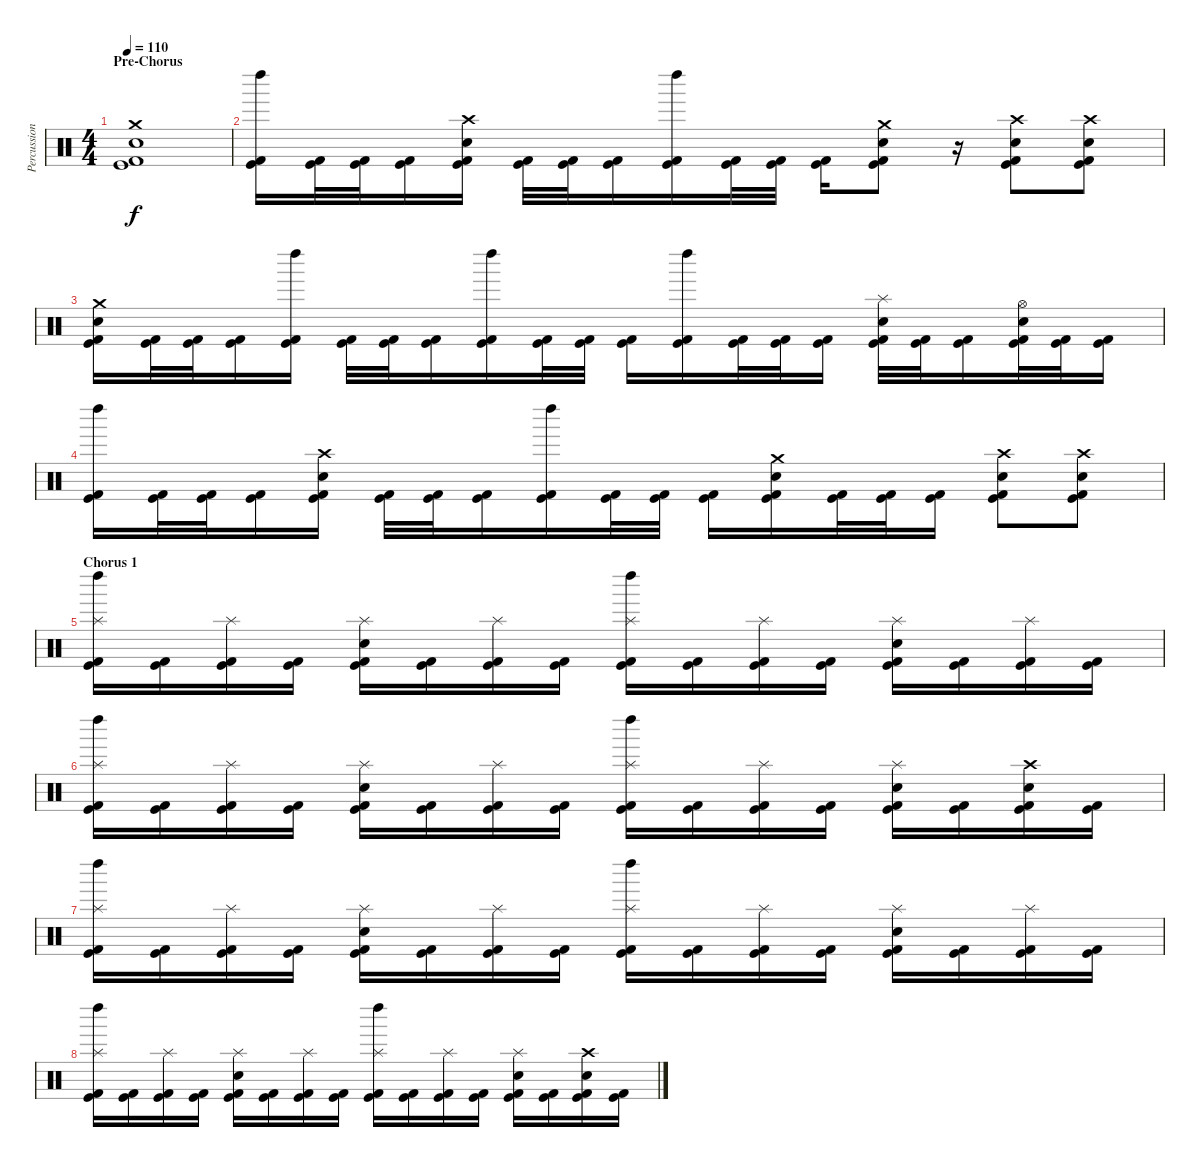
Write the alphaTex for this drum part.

\track ("Percussions" "Percussion") {instrument percussion}
\staff {score}
\articulation defaults
\ts (4 4)
\section ("" "Pre-Chorus")
\tempo 110
\clef neutral
\ks c
("Kick (hit)" "Kick (hit) 2" "Electric Snare (hit)" "Crash medium (hit)").1{dy f} |
("Kick (hit)" "Kick (hit) 2" "Left Maraca (hit)").16 ("Kick (hit)" "Kick (hit) 2").32 ("Kick (hit)" "Kick (hit) 2").32 ("Kick (hit)" "Kick (hit) 2").16 ("Kick (hit)" "Kick (hit) 2" "Electric Snare (hit)" "Crash high (hit)").16 ("Kick (hit)" "Kick (hit) 2").32 ("Kick (hit)" "Kick (hit) 2").32 ("Kick (hit)" "Kick (hit) 2").16 ("Kick (hit)" "Kick (hit) 2" "Left Maraca (hit)").16 ("Kick (hit)" "Kick (hit) 2").32 ("Kick (hit)" "Kick (hit) 2").32 ("Kick (hit)" "Kick (hit) 2").16 ("Kick (hit)" "Kick (hit) 2" "Electric Snare (hit)" "Crash medium (hit)").8 r.16 ("Kick (hit)" "Kick (hit) 2" "Electric Snare (hit)" "Crash high (hit)").8 ("Kick (hit)" "Kick (hit) 2" "Electric Snare (hit)" "Crash high (hit)").8 |
("Kick (hit)" "Kick (hit) 2" "Electric Snare (hit)" "Crash medium (hit)").16 ("Kick (hit)" "Kick (hit) 2").32 ("Kick (hit)" "Kick (hit) 2").32 ("Kick (hit)" "Kick (hit) 2").16 ("Kick (hit)" "Kick (hit) 2" "Left Maraca (hit)").16 ("Kick (hit)" "Kick (hit) 2").32 ("Kick (hit)" "Kick (hit) 2").32 ("Kick (hit)" "Kick (hit) 2").16 ("Kick (hit)" "Kick (hit) 2" "Left Maraca (hit)").16 ("Kick (hit)" "Kick (hit) 2").32 ("Kick (hit)" "Kick (hit) 2").32 ("Kick (hit)" "Kick (hit) 2").16 ("Kick (hit)" "Kick (hit) 2" "Left Maraca (hit)").16 ("Kick (hit)" "Kick (hit) 2").32 ("Kick (hit)" "Kick (hit) 2").32 ("Kick (hit)" "Kick (hit) 2").16 ("Kick (hit)" "Kick (hit) 2" "Electric Snare (hit)" "Splash (hit)").32 ("Kick (hit)" "Kick (hit) 2").32 ("Kick (hit)" "Kick (hit) 2").16 ("Kick (hit)" "Kick (hit) 2" "Electric Snare (hit)" "Hi-Hat (open)").32 ("Kick (hit)" "Kick (hit) 2").32 ("Kick (hit)" "Kick (hit) 2").16 |
("Kick (hit)" "Kick (hit) 2" "Left Maraca (hit)").16 ("Kick (hit)" "Kick (hit) 2").32 ("Kick (hit)" "Kick (hit) 2").32 ("Kick (hit)" "Kick (hit) 2").16 ("Kick (hit)" "Kick (hit) 2" "Electric Snare (hit)" "Crash high (hit)").16 ("Kick (hit)" "Kick (hit) 2").32 ("Kick (hit)" "Kick (hit) 2").32 ("Kick (hit)" "Kick (hit) 2").16 ("Kick (hit)" "Kick (hit) 2" "Left Maraca (hit)").16 ("Kick (hit)" "Kick (hit) 2").32 ("Kick (hit)" "Kick (hit) 2").32 ("Kick (hit)" "Kick (hit) 2").16 ("Kick (hit)" "Kick (hit) 2" "Electric Snare (hit)" "Crash medium (hit)").16 ("Kick (hit)" "Kick (hit) 2").32 ("Kick (hit)" "Kick (hit) 2").32 ("Kick (hit)" "Kick (hit) 2").16 ("Kick (hit)" "Kick (hit) 2" "Electric Snare (hit)" "Crash high (hit)").8 ("Kick (hit)" "Kick (hit) 2" "Electric Snare (hit)" "Crash high (hit)").8 |
\section ("" "Chorus 1")
("Kick (hit)" "Kick (hit) 2" "Splash (hit)" "Left Maraca (hit)").16 ("Kick (hit)" "Kick (hit) 2").16 ("Kick (hit)" "Kick (hit) 2" "Splash (hit)").16 ("Kick (hit)" "Kick (hit) 2").16 ("Kick (hit)" "Kick (hit) 2" "Splash (hit)" "Electric Snare (hit)").16 ("Kick (hit)" "Kick (hit) 2").16 ("Kick (hit)" "Kick (hit) 2" "Splash (hit)").16 ("Kick (hit)" "Kick (hit) 2").16 ("Kick (hit)" "Kick (hit) 2" "Splash (hit)" "Left Maraca (hit)").16 ("Kick (hit)" "Kick (hit) 2").16 ("Kick (hit)" "Kick (hit) 2" "Splash (hit)").16 ("Kick (hit)" "Kick (hit) 2").16 ("Kick (hit)" "Kick (hit) 2" "Splash (hit)" "Electric Snare (hit)").16 ("Kick (hit)" "Kick (hit) 2").16 ("Kick (hit)" "Kick (hit) 2" "Splash (hit)").16 ("Kick (hit)" "Kick (hit) 2").16 |
("Kick (hit)" "Kick (hit) 2" "Splash (hit)" "Left Maraca (hit)").16 ("Kick (hit)" "Kick (hit) 2").16 ("Kick (hit)" "Kick (hit) 2" "Splash (hit)").16 ("Kick (hit)" "Kick (hit) 2").16 ("Kick (hit)" "Kick (hit) 2" "Splash (hit)" "Electric Snare (hit)").16 ("Kick (hit)" "Kick (hit) 2").16 ("Kick (hit)" "Kick (hit) 2" "Splash (hit)").16 ("Kick (hit)" "Kick (hit) 2").16 ("Kick (hit)" "Kick (hit) 2" "Splash (hit)" "Left Maraca (hit)").16 ("Kick (hit)" "Kick (hit) 2").16 ("Kick (hit)" "Kick (hit) 2" "Splash (hit)").16 ("Kick (hit)" "Kick (hit) 2").16 ("Kick (hit)" "Kick (hit) 2" "Splash (hit)" "Electric Snare (hit)").16 ("Kick (hit)" "Kick (hit) 2").16 ("Kick (hit)" "Kick (hit) 2" "Crash high (hit)" "Electric Snare (hit)").16 ("Kick (hit)" "Kick (hit) 2").16 |
("Kick (hit)" "Kick (hit) 2" "Splash (hit)" "Left Maraca (hit)").16 ("Kick (hit)" "Kick (hit) 2").16 ("Kick (hit)" "Kick (hit) 2" "Splash (hit)").16 ("Kick (hit)" "Kick (hit) 2").16 ("Kick (hit)" "Kick (hit) 2" "Splash (hit)" "Electric Snare (hit)").16 ("Kick (hit)" "Kick (hit) 2").16 ("Kick (hit)" "Kick (hit) 2" "Splash (hit)").16 ("Kick (hit)" "Kick (hit) 2").16 ("Kick (hit)" "Kick (hit) 2" "Splash (hit)" "Left Maraca (hit)").16 ("Kick (hit)" "Kick (hit) 2").16 ("Kick (hit)" "Kick (hit) 2" "Splash (hit)").16 ("Kick (hit)" "Kick (hit) 2").16 ("Kick (hit)" "Kick (hit) 2" "Splash (hit)" "Electric Snare (hit)").16 ("Kick (hit)" "Kick (hit) 2").16 ("Kick (hit)" "Kick (hit) 2" "Splash (hit)").16 ("Kick (hit)" "Kick (hit) 2").16 |
("Kick (hit)" "Kick (hit) 2" "Splash (hit)" "Left Maraca (hit)").16 ("Kick (hit)" "Kick (hit) 2").16 ("Kick (hit)" "Kick (hit) 2" "Splash (hit)").16 ("Kick (hit)" "Kick (hit) 2").16 ("Kick (hit)" "Kick (hit) 2" "Splash (hit)" "Electric Snare (hit)").16 ("Kick (hit)" "Kick (hit) 2").16 ("Kick (hit)" "Kick (hit) 2" "Splash (hit)").16 ("Kick (hit)" "Kick (hit) 2").16 ("Kick (hit)" "Kick (hit) 2" "Splash (hit)" "Left Maraca (hit)").16 ("Kick (hit)" "Kick (hit) 2").16 ("Kick (hit)" "Kick (hit) 2" "Splash (hit)").16 ("Kick (hit)" "Kick (hit) 2").16 ("Kick (hit)" "Kick (hit) 2" "Splash (hit)" "Electric Snare (hit)").16 ("Kick (hit)" "Kick (hit) 2").16 ("Kick (hit)" "Kick (hit) 2" "Crash high (hit)" "Electric Snare (hit)").16 ("Kick (hit)" "Kick (hit) 2").16
